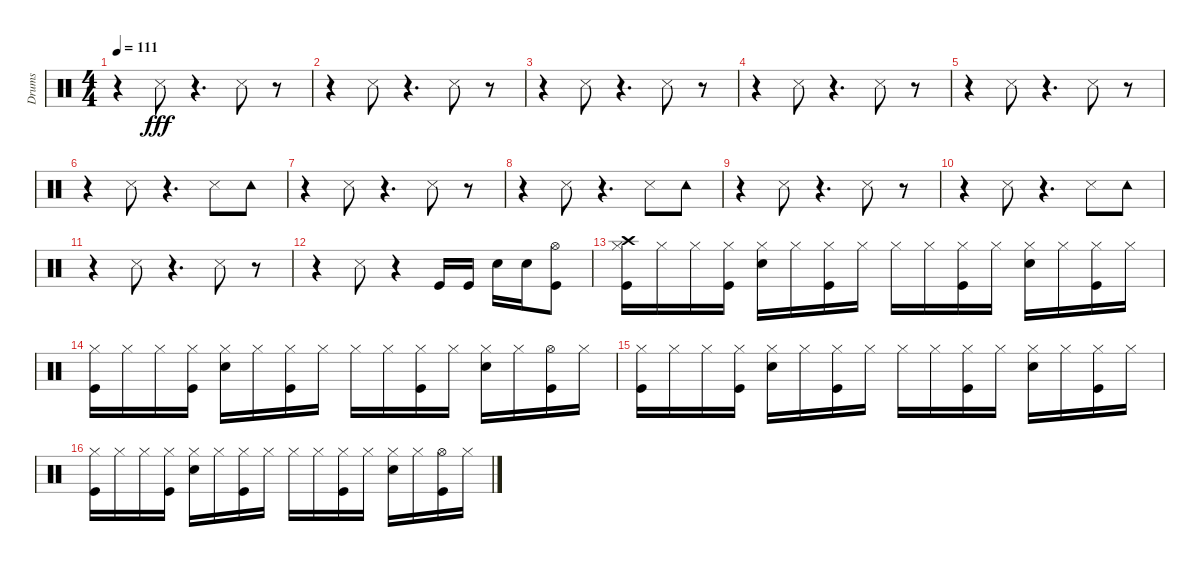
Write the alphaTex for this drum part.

\track ("Drums" "Drums") {instrument percussion}
\staff {score}
\articulation defaults
\ts (4 4)
\tempo 111
\clef neutral
\ks c
r.4{dy fff} "Snare (side stick) 3".8 r.4{d} "Snare (side stick) 3".8 r.8 |
r.4 "Snare (side stick) 3".8 r.4{d} "Snare (side stick) 3".8 r.8 |
r.4 "Snare (side stick) 3".8 r.4{d} "Snare (side stick) 3".8 r.8 |
r.4 "Snare (side stick) 3".8 r.4{d} "Snare (side stick) 3".8 r.8 |
r.4 "Snare (side stick) 3".8 r.4{d} "Snare (side stick) 3".8 r.8 |
r.4 "Snare (side stick) 3".8 r.4{d} "Snare (side stick) 3".8 "Tambourine (hit)".8 |
r.4 "Snare (side stick) 3".8 r.4{d} "Snare (side stick) 3".8 r.8 |
r.4 "Snare (side stick) 3".8 r.4{d} "Snare (side stick) 3".8 "Tambourine (hit)".8 |
r.4 "Snare (side stick) 3".8 r.4{d} "Snare (side stick) 3".8 r.8 |
r.4 "Snare (side stick) 3".8 r.4{d} "Snare (side stick) 3".8 "Tambourine (hit)".8 |
r.4 "Snare (side stick) 3".8 r.4{d} "Snare (side stick) 3".8 r.8 |
r.4 "Snare (side stick) 3".8 r.4 "Kick (hit)".16 "Kick (hit)".16 "Snare (hit) 2".16 "Snare (hit) 2".16 ("Hi-Hat (open)" "Kick (hit)").8 |
("Hi-Hat (closed)" "Crash high (hit)" "Kick (hit)").16 "Hi-Hat (closed)".16 "Hi-Hat (closed)".16 ("Hi-Hat (closed)" "Kick (hit)").16 ("Hi-Hat (closed)" "Snare (hit) 2").16 "Hi-Hat (closed)".16 ("Hi-Hat (closed)" "Kick (hit)").16 "Hi-Hat (closed)".16 "Hi-Hat (closed)".16 "Hi-Hat (closed)".16 ("Hi-Hat (closed)" "Kick (hit)").16 "Hi-Hat (closed)".16 ("Hi-Hat (closed)" "Snare (hit) 2").16 "Hi-Hat (closed)".16 ("Hi-Hat (closed)" "Kick (hit)").16 "Hi-Hat (closed)".16 |
("Hi-Hat (closed)" "Kick (hit)").16 "Hi-Hat (closed)".16 "Hi-Hat (closed)".16 ("Hi-Hat (closed)" "Kick (hit)").16 ("Hi-Hat (closed)" "Snare (hit) 2").16 "Hi-Hat (closed)".16 ("Hi-Hat (closed)" "Kick (hit)").16 "Hi-Hat (closed)".16 "Hi-Hat (closed)".16 "Hi-Hat (closed)".16 ("Hi-Hat (closed)" "Kick (hit)").16 "Hi-Hat (closed)".16 ("Hi-Hat (closed)" "Snare (hit) 2").16 "Hi-Hat (closed)".16 ("Hi-Hat (open)" "Kick (hit)").16 "Hi-Hat (closed)".16 |
("Hi-Hat (closed)" "Kick (hit)").16 "Hi-Hat (closed)".16 "Hi-Hat (closed)".16 ("Hi-Hat (closed)" "Kick (hit)").16 ("Hi-Hat (closed)" "Snare (hit) 2").16 "Hi-Hat (closed)".16 ("Hi-Hat (closed)" "Kick (hit)").16 "Hi-Hat (closed)".16 "Hi-Hat (closed)".16 "Hi-Hat (closed)".16 ("Hi-Hat (closed)" "Kick (hit)").16 "Hi-Hat (closed)".16 ("Hi-Hat (closed)" "Snare (hit) 2").16 "Hi-Hat (closed)".16 ("Hi-Hat (closed)" "Kick (hit)").16 "Hi-Hat (closed)".16 |
("Hi-Hat (closed)" "Kick (hit)").16 "Hi-Hat (closed)".16 "Hi-Hat (closed)".16 ("Hi-Hat (closed)" "Kick (hit)").16 ("Hi-Hat (closed)" "Snare (hit) 2").16 "Hi-Hat (closed)".16 ("Hi-Hat (closed)" "Kick (hit)").16 "Hi-Hat (closed)".16 "Hi-Hat (closed)".16 "Hi-Hat (closed)".16 ("Hi-Hat (closed)" "Kick (hit)").16 "Hi-Hat (closed)".16 ("Hi-Hat (closed)" "Snare (hit) 2").16 "Hi-Hat (closed)".16 ("Hi-Hat (open)" "Kick (hit)").16 "Hi-Hat (closed)".16
